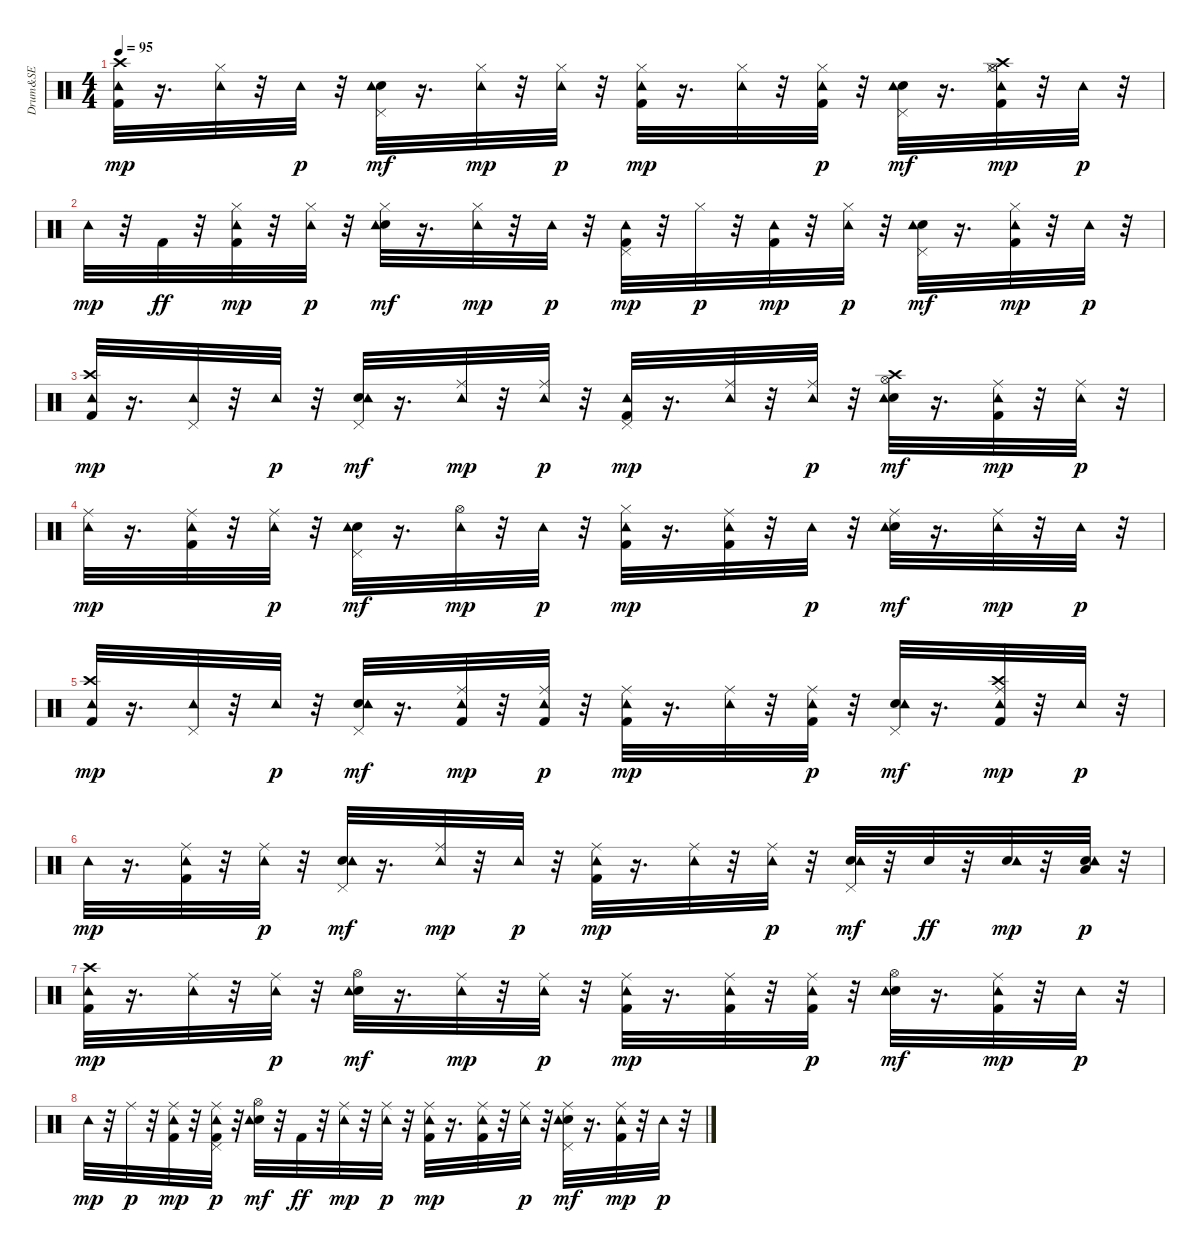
\track ("Drum&SE" "Drum&SE") {instrument percussion}
\staff {score}
\articulation defaults
\ts (4 4)
\tempo 95
\clef neutral
\ks c
("Kick (hit) 2" "Crash high (hit)" "Tambourine (hit)").32{dy mp} r.16{d} ("Hi-Hat (closed)" "Tambourine (hit)").32 r.32 "Tambourine (hit)".32{dy p} r.32 ("Snare (hit) 2" "Pedal Hi-Hat (hit)" "Tambourine (hit)").32{dy mf} r.16{d} ("Hi-Hat (closed)" "Tambourine (hit)").32{dy mp} r.32 ("Hi-Hat (closed)" "Tambourine (hit)").32{dy p} r.32 ("Kick (hit) 2" "Hi-Hat (closed)" "Tambourine (hit)").32{dy mp} r.16{d} ("Hi-Hat (closed)" "Tambourine (hit)").32 r.32 ("Hi-Hat (closed)" "Kick (hit) 2" "Tambourine (hit)").32{dy p} r.32 ("Snare (hit) 2" "Pedal Hi-Hat (hit)" "Tambourine (hit)").32{dy mf} r.16{d} ("Kick (hit) 2" "Hi-Hat (closed)" "Crash high (hit)" "Hi-Hat (open)" "Tambourine (hit)").32{dy mp} r.32 "Tambourine (hit)".32{dy p} r.32 |
"Tambourine (hit)".32{dy mp} r.32 "Kick (hit) 2".32{dy ff} r.32 ("Hi-Hat (closed)" "Kick (hit) 2" "Tambourine (hit)").32{dy mp} r.32 ("Hi-Hat (closed)" "Tambourine (hit)").32{dy p} r.32 ("Snare (hit) 2" "Hi-Hat (closed)" "Tambourine (hit)").32{dy mf} r.16{d} ("Hi-Hat (closed)" "Tambourine (hit)").32{dy mp} r.32 "Tambourine (hit)".32{dy p} r.32 ("Kick (hit) 2" "Pedal Hi-Hat (hit)" "Tambourine (hit)").32{dy mp} r.32 "Hi-Hat (closed)".32{dy p} r.32 ("Kick (hit) 2" "Tambourine (hit)").32{dy mp} r.32 ("Hi-Hat (closed)" "Tambourine (hit)").32{dy p} r.32 ("Snare (hit) 2" "Pedal Hi-Hat (hit)" "Tambourine (hit)").32{dy mf} r.16{d} ("Kick (hit) 2" "Hi-Hat (closed)" "Tambourine (hit)").32{dy mp} r.32 "Tambourine (hit)".32{dy p} r.32 |
("Kick (hit) 2" "Crash high (hit)" "Tambourine (hit)").32{dy mp} r.16{d} ("Pedal Hi-Hat (hit)" "Tambourine (hit)").32 r.32 "Tambourine (hit)".32{dy p} r.32 ("Snare (hit) 2" "Pedal Hi-Hat (hit)" "Tambourine (hit)").32{dy mf} r.16{d} ("Ride (middle)" "Tambourine (hit)").32{dy mp} r.32 ("Ride (middle)" "Tambourine (hit)").32{dy p} r.32 ("Kick (hit) 2" "Pedal Hi-Hat (hit)" "Tambourine (hit)").32{dy mp} r.16{d} ("Ride (middle)" "Tambourine (hit)").32 r.32 ("Ride (middle)" "Tambourine (hit)").32{dy p} r.32 ("Snare (hit) 2" "Crash high (hit)" "Hi-Hat (open)" "Tambourine (hit)").32{dy mf} r.16{d} ("Kick (hit) 2" "Ride (middle)" "Tambourine (hit)").32{dy mp} r.32 ("Ride (middle)" "Tambourine (hit)").32{dy p} r.32 |
("Ride (middle)" "Tambourine (hit)").32{dy mp} r.16{d} ("Kick (hit) 2" "Ride (middle)" "Tambourine (hit)").32 r.32 ("Ride (middle)" "Tambourine (hit)").32{dy p} r.32 ("Snare (hit) 2" "Pedal Hi-Hat (hit)" "Tambourine (hit)").32{dy mf} r.16{d} ("Hi-Hat (open)" "Tambourine (hit)").32{dy mp} r.32 "Tambourine (hit)".32{dy p} r.32 ("Hi-Hat (closed)" "Kick (hit) 2" "Tambourine (hit)").32{dy mp} r.16{d} ("Kick (hit) 2" "Ride (middle)" "Tambourine (hit)").32 r.32 "Tambourine (hit)".32{dy p} r.32 ("Snare (hit) 2" "Ride (middle)" "Tambourine (hit)").32{dy mf} r.16{d} ("Ride (middle)" "Tambourine (hit)").32{dy mp} r.32 "Tambourine (hit)".32{dy p} r.32 |
("Kick (hit) 2" "Crash high (hit)" "Tambourine (hit)").32{dy mp} r.16{d} ("Pedal Hi-Hat (hit)" "Tambourine (hit)").32 r.32 "Tambourine (hit)".32{dy p} r.32 ("Snare (hit) 2" "Pedal Hi-Hat (hit)" "Tambourine (hit)").32{dy mf} r.16{d} ("Kick (hit) 2" "Ride (middle)" "Tambourine (hit)").32{dy mp} r.32 ("Kick (hit) 2" "Ride (middle)" "Tambourine (hit)").32{dy p} r.32 ("Kick (hit) 2" "Ride (middle)" "Tambourine (hit)").32{dy mp} r.16{d} ("Ride (middle)" "Tambourine (hit)").32 r.32 ("Kick (hit) 2" "Ride (middle)" "Tambourine (hit)").32{dy p} r.32 ("Snare (hit) 2" "Pedal Hi-Hat (hit)" "Tambourine (hit)").32{dy mf} r.16{d} ("Kick (hit) 2" "Ride (middle)" "Crash high (hit)" "Tambourine (hit)").32{dy mp} r.32 "Tambourine (hit)".32{dy p} r.32 |
"Tambourine (hit)".32{dy mp} r.16{d} ("Kick (hit) 2" "Ride (middle)" "Tambourine (hit)").32 r.32 ("Ride (middle)" "Tambourine (hit)").32{dy p} r.32 ("Snare (hit) 2" "Pedal Hi-Hat (hit)" "Tambourine (hit)").32{dy mf} r.16{d} ("Ride (middle)" "Tambourine (hit)").32{dy mp} r.32 "Tambourine (hit)".32{dy p} r.32 ("Kick (hit) 2" "Ride (middle)" "Tambourine (hit)").32{dy mp} r.16{d} ("Ride (middle)" "Tambourine (hit)").32 r.32 ("Ride (middle)" "Tambourine (hit)").32{dy p} r.32 ("Snare (hit) 2" "Pedal Hi-Hat (hit)" "Tambourine (hit)").32{dy mf} r.32 "Snare (hit) 2".32{dy ff} r.32 ("Snare (hit) 2" "Tambourine (hit)").32{dy mp} r.32 ("Snare (hit) 2" "Low Floor Tom (hit)" "Tambourine (hit)").32{dy p} r.32 |
("Kick (hit) 2" "Crash high (hit)" "Tambourine (hit)").32{dy mp} r.16{d} ("Ride (middle)" "Tambourine (hit)").32 r.32 ("Ride (middle)" "Tambourine (hit)").32{dy p} r.32 ("Snare (hit) 2" "Hi-Hat (open)" "Tambourine (hit)").32{dy mf} r.16{d} ("Ride (middle)" "Tambourine (hit)").32{dy mp} r.32 ("Ride (middle)" "Tambourine (hit)").32{dy p} r.32 ("Kick (hit) 2" "Ride (middle)" "Tambourine (hit)").32{dy mp} r.16{d} ("Ride (middle)" "Kick (hit) 2" "Tambourine (hit)").32 r.32 ("Ride (middle)" "Kick (hit) 2" "Tambourine (hit)").32{dy p} r.32 ("Snare (hit) 2" "Hi-Hat (open)" "Tambourine (hit)").32{dy mf} r.16{d} ("Ride (middle)" "Kick (hit) 2" "Tambourine (hit)").32{dy mp} r.32 "Tambourine (hit)".32{dy p} r.32 |
"Tambourine (hit)".32{dy mp} r.32 "Ride (middle)".32{dy p} r.32 ("Kick (hit) 2" "Ride (middle)" "Tambourine (hit)").32{dy mp} r.32 ("Kick (hit) 2" "Ride (middle)" "Pedal Hi-Hat (hit)" "Tambourine (hit)").32{dy p} r.32 ("Snare (hit) 2" "Hi-Hat (open)" "Tambourine (hit)").32{dy mf} r.32 "Kick (hit) 2".32{dy ff} r.32 ("Ride (middle)" "Tambourine (hit)").32{dy mp} r.32 ("Ride (middle)" "Tambourine (hit)").32{dy p} r.32 ("Kick (hit) 2" "Ride (middle)" "Tambourine (hit)").32{dy mp} r.16{d} ("Ride (middle)" "Kick (hit) 2" "Tambourine (hit)").32 r.32 ("Ride (middle)" "Tambourine (hit)").32{dy p} r.32 ("Snare (hit) 2" "Ride (middle)" "Pedal Hi-Hat (hit)" "Tambourine (hit)").32{dy mf} r.16{d} ("Ride (middle)" "Kick (hit) 2" "Tambourine (hit)").32{dy mp} r.32 "Tambourine (hit)".32{dy p} r.32
